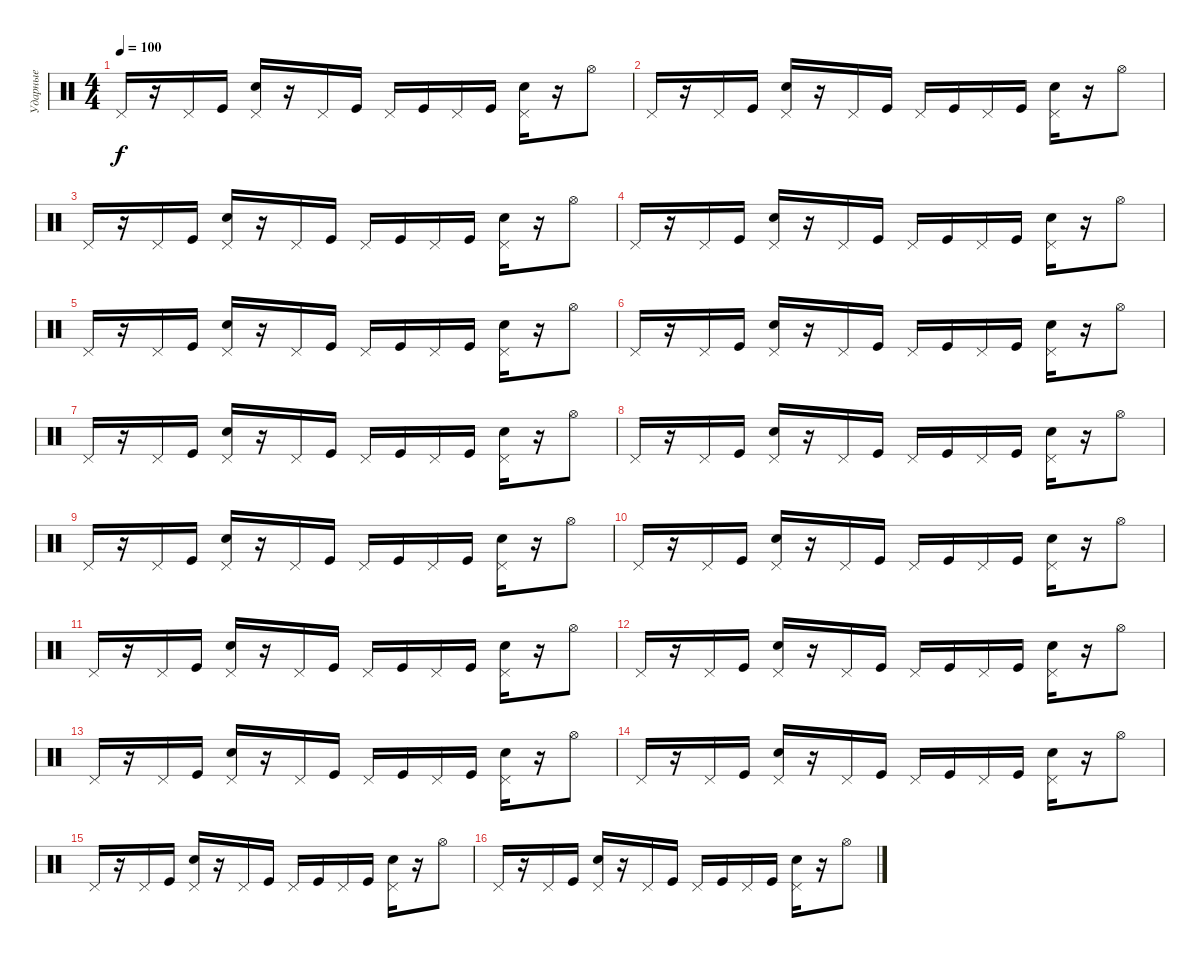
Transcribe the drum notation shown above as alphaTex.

\track ("Ударные" "Ударные") {instrument percussion}
\staff {score}
\articulation defaults
\ts (4 4)
\tempo 100
\clef neutral
\ks c "Pedal Hi-Hat (hit)".16{dy f}
r.16 "Pedal Hi-Hat (hit)".16 "Kick (hit)".16 ("Electric Snare (hit)" "Pedal Hi-Hat (hit)").16 r.16 "Pedal Hi-Hat (hit)".16 "Kick (hit)".16 "Pedal Hi-Hat (hit)".16 "Kick (hit)".16 "Pedal Hi-Hat (hit)".16 "Kick (hit)".16 ("Electric Snare (hit)" "Pedal Hi-Hat (hit)").16 r.16 "Hi-Hat (open)".8 |
"Pedal Hi-Hat (hit)".16 r.16 "Pedal Hi-Hat (hit)".16 "Kick (hit)".16 ("Electric Snare (hit)" "Pedal Hi-Hat (hit)").16 r.16 "Pedal Hi-Hat (hit)".16 "Kick (hit)".16 "Pedal Hi-Hat (hit)".16 "Kick (hit)".16 "Pedal Hi-Hat (hit)".16 "Kick (hit)".16 ("Electric Snare (hit)" "Pedal Hi-Hat (hit)").16 r.16 "Hi-Hat (open)".8 |
"Pedal Hi-Hat (hit)".16 r.16 "Pedal Hi-Hat (hit)".16 "Kick (hit)".16 ("Electric Snare (hit)" "Pedal Hi-Hat (hit)").16 r.16 "Pedal Hi-Hat (hit)".16 "Kick (hit)".16 "Pedal Hi-Hat (hit)".16 "Kick (hit)".16 "Pedal Hi-Hat (hit)".16 "Kick (hit)".16 ("Electric Snare (hit)" "Pedal Hi-Hat (hit)").16 r.16 "Hi-Hat (open)".8 |
"Pedal Hi-Hat (hit)".16 r.16 "Pedal Hi-Hat (hit)".16 "Kick (hit)".16 ("Electric Snare (hit)" "Pedal Hi-Hat (hit)").16 r.16 "Pedal Hi-Hat (hit)".16 "Kick (hit)".16 "Pedal Hi-Hat (hit)".16 "Kick (hit)".16 "Pedal Hi-Hat (hit)".16 "Kick (hit)".16 ("Electric Snare (hit)" "Pedal Hi-Hat (hit)").16 r.16 "Hi-Hat (open)".8 |
"Pedal Hi-Hat (hit)".16 r.16 "Pedal Hi-Hat (hit)".16 "Kick (hit)".16 ("Electric Snare (hit)" "Pedal Hi-Hat (hit)").16 r.16 "Pedal Hi-Hat (hit)".16 "Kick (hit)".16 "Pedal Hi-Hat (hit)".16 "Kick (hit)".16 "Pedal Hi-Hat (hit)".16 "Kick (hit)".16 ("Electric Snare (hit)" "Pedal Hi-Hat (hit)").16 r.16 "Hi-Hat (open)".8 |
"Pedal Hi-Hat (hit)".16 r.16 "Pedal Hi-Hat (hit)".16 "Kick (hit)".16 ("Electric Snare (hit)" "Pedal Hi-Hat (hit)").16 r.16 "Pedal Hi-Hat (hit)".16 "Kick (hit)".16 "Pedal Hi-Hat (hit)".16 "Kick (hit)".16 "Pedal Hi-Hat (hit)".16 "Kick (hit)".16 ("Electric Snare (hit)" "Pedal Hi-Hat (hit)").16 r.16 "Hi-Hat (open)".8 |
"Pedal Hi-Hat (hit)".16 r.16 "Pedal Hi-Hat (hit)".16 "Kick (hit)".16 ("Electric Snare (hit)" "Pedal Hi-Hat (hit)").16 r.16 "Pedal Hi-Hat (hit)".16 "Kick (hit)".16 "Pedal Hi-Hat (hit)".16 "Kick (hit)".16 "Pedal Hi-Hat (hit)".16 "Kick (hit)".16 ("Electric Snare (hit)" "Pedal Hi-Hat (hit)").16 r.16 "Hi-Hat (open)".8 |
"Pedal Hi-Hat (hit)".16 r.16 "Pedal Hi-Hat (hit)".16 "Kick (hit)".16 ("Electric Snare (hit)" "Pedal Hi-Hat (hit)").16 r.16 "Pedal Hi-Hat (hit)".16 "Kick (hit)".16 "Pedal Hi-Hat (hit)".16 "Kick (hit)".16 "Pedal Hi-Hat (hit)".16 "Kick (hit)".16 ("Electric Snare (hit)" "Pedal Hi-Hat (hit)").16 r.16 "Hi-Hat (open)".8 |
"Pedal Hi-Hat (hit)".16 r.16 "Pedal Hi-Hat (hit)".16 "Kick (hit)".16 ("Electric Snare (hit)" "Pedal Hi-Hat (hit)").16 r.16 "Pedal Hi-Hat (hit)".16 "Kick (hit)".16 "Pedal Hi-Hat (hit)".16 "Kick (hit)".16 "Pedal Hi-Hat (hit)".16 "Kick (hit)".16 ("Electric Snare (hit)" "Pedal Hi-Hat (hit)").16 r.16 "Hi-Hat (open)".8 |
"Pedal Hi-Hat (hit)".16 r.16 "Pedal Hi-Hat (hit)".16 "Kick (hit)".16 ("Electric Snare (hit)" "Pedal Hi-Hat (hit)").16 r.16 "Pedal Hi-Hat (hit)".16 "Kick (hit)".16 "Pedal Hi-Hat (hit)".16 "Kick (hit)".16 "Pedal Hi-Hat (hit)".16 "Kick (hit)".16 ("Electric Snare (hit)" "Pedal Hi-Hat (hit)").16 r.16 "Hi-Hat (open)".8 |
"Pedal Hi-Hat (hit)".16 r.16 "Pedal Hi-Hat (hit)".16 "Kick (hit)".16 ("Electric Snare (hit)" "Pedal Hi-Hat (hit)").16 r.16 "Pedal Hi-Hat (hit)".16 "Kick (hit)".16 "Pedal Hi-Hat (hit)".16 "Kick (hit)".16 "Pedal Hi-Hat (hit)".16 "Kick (hit)".16 ("Electric Snare (hit)" "Pedal Hi-Hat (hit)").16 r.16 "Hi-Hat (open)".8 |
"Pedal Hi-Hat (hit)".16 r.16 "Pedal Hi-Hat (hit)".16 "Kick (hit)".16 ("Electric Snare (hit)" "Pedal Hi-Hat (hit)").16 r.16 "Pedal Hi-Hat (hit)".16 "Kick (hit)".16 "Pedal Hi-Hat (hit)".16 "Kick (hit)".16 "Pedal Hi-Hat (hit)".16 "Kick (hit)".16 ("Electric Snare (hit)" "Pedal Hi-Hat (hit)").16 r.16 "Hi-Hat (open)".8 |
"Pedal Hi-Hat (hit)".16 r.16 "Pedal Hi-Hat (hit)".16 "Kick (hit)".16 ("Electric Snare (hit)" "Pedal Hi-Hat (hit)").16 r.16 "Pedal Hi-Hat (hit)".16 "Kick (hit)".16 "Pedal Hi-Hat (hit)".16 "Kick (hit)".16 "Pedal Hi-Hat (hit)".16 "Kick (hit)".16 ("Electric Snare (hit)" "Pedal Hi-Hat (hit)").16 r.16 "Hi-Hat (open)".8 |
"Pedal Hi-Hat (hit)".16 r.16 "Pedal Hi-Hat (hit)".16 "Kick (hit)".16 ("Electric Snare (hit)" "Pedal Hi-Hat (hit)").16 r.16 "Pedal Hi-Hat (hit)".16 "Kick (hit)".16 "Pedal Hi-Hat (hit)".16 "Kick (hit)".16 "Pedal Hi-Hat (hit)".16 "Kick (hit)".16 ("Electric Snare (hit)" "Pedal Hi-Hat (hit)").16 r.16 "Hi-Hat (open)".8 |
"Pedal Hi-Hat (hit)".16 r.16 "Pedal Hi-Hat (hit)".16 "Kick (hit)".16 ("Electric Snare (hit)" "Pedal Hi-Hat (hit)").16 r.16 "Pedal Hi-Hat (hit)".16 "Kick (hit)".16 "Pedal Hi-Hat (hit)".16 "Kick (hit)".16 "Pedal Hi-Hat (hit)".16 "Kick (hit)".16 ("Electric Snare (hit)" "Pedal Hi-Hat (hit)").16 r.16 "Hi-Hat (open)".8 |
"Pedal Hi-Hat (hit)".16 r.16 "Pedal Hi-Hat (hit)".16 "Kick (hit)".16 ("Electric Snare (hit)" "Pedal Hi-Hat (hit)").16 r.16 "Pedal Hi-Hat (hit)".16 "Kick (hit)".16 "Pedal Hi-Hat (hit)".16 "Kick (hit)".16 "Pedal Hi-Hat (hit)".16 "Kick (hit)".16 ("Electric Snare (hit)" "Pedal Hi-Hat (hit)").16 r.16 "Hi-Hat (open)".8
